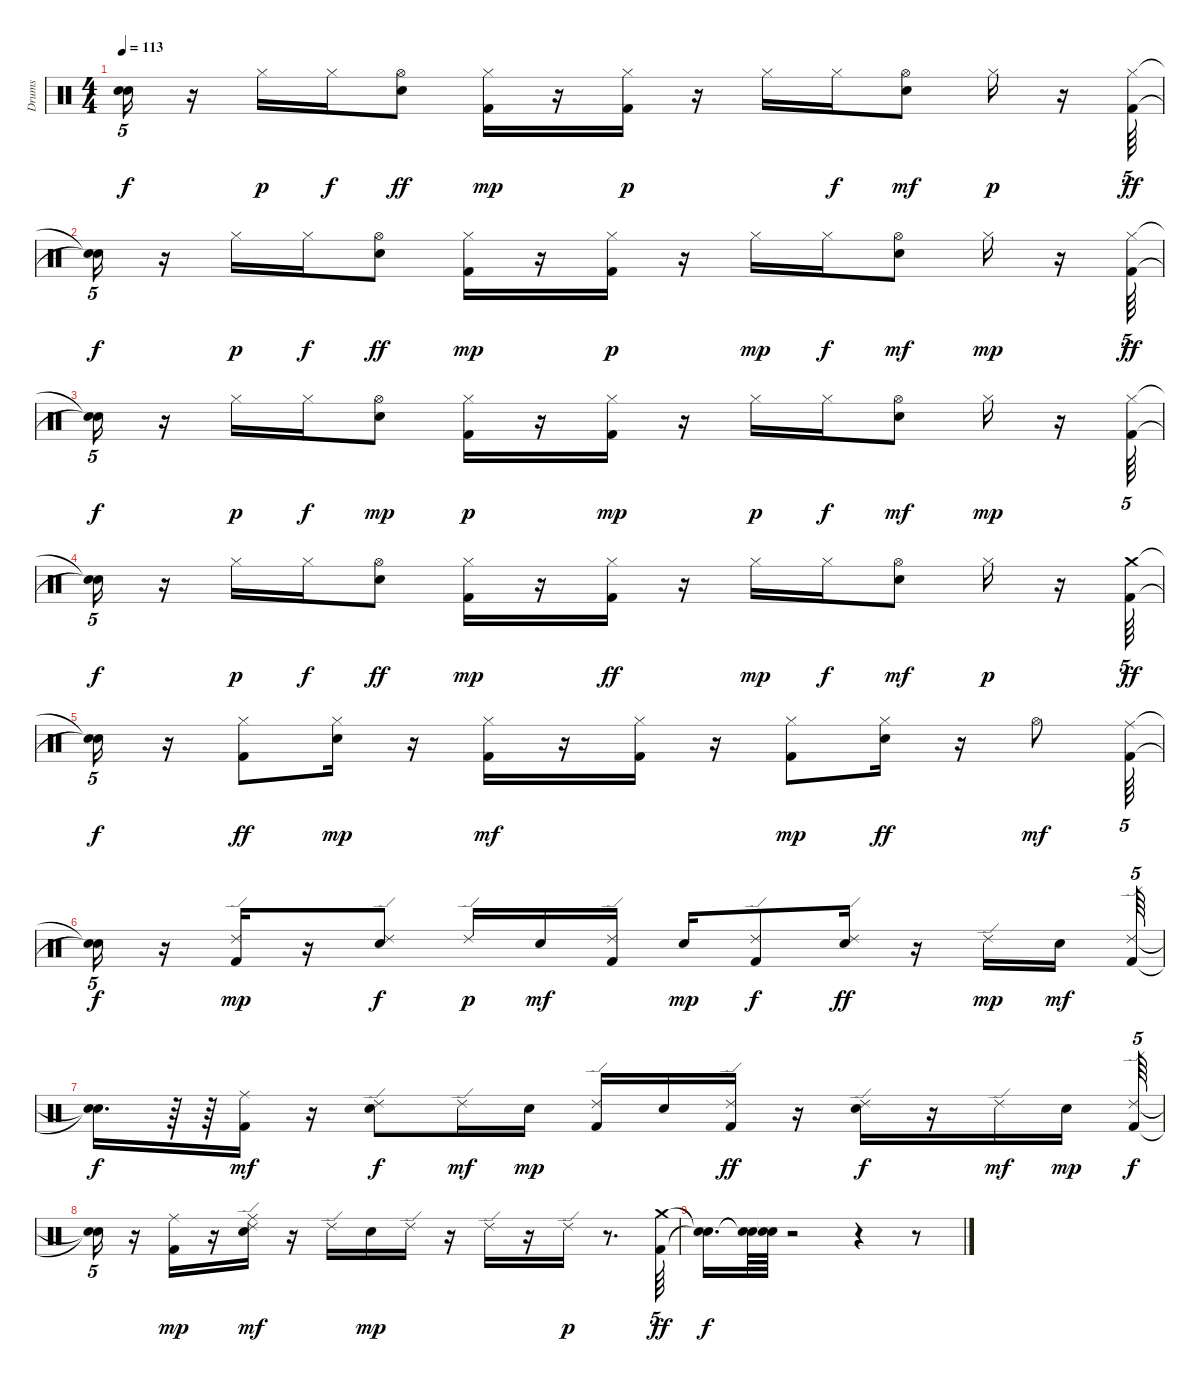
\track ("Drums" "Drums") {instrument percussion}
\staff {score}
\articulation defaults
\ts (4 4)
\tempo 113
\clef neutral
\ks c
("Snare (hit)"{t} "Snare (hit)"{t}).16{tu (5 4) dy f} r.16 "Hi-Hat (closed)".16{dy p} "Hi-Hat (closed)".16{dy f} ("Hi-Hat (open)" "Electric Snare (hit)").8{dy ff} ("Kick (hit) 2" "Hi-Hat (closed)").16{dy mp} r.16 ("Hi-Hat (closed)" "Kick (hit) 2").16{dy p} r.16 "Hi-Hat (closed)".16 "Hi-Hat (closed)".16{dy f} ("Electric Snare (hit)" "Hi-Hat (open)").8{dy mf} "Hi-Hat (closed)".16{dy p} r.16 ("Hi-Hat (closed)" "Kick (hit) 2").64{tu (5 4) dy ff} |
("Snare (hit)"{t} "Snare (hit)"{t}).16{tu (5 4) dy f} r.16 "Hi-Hat (closed)".16{dy p} "Hi-Hat (closed)".16{dy f} ("Hi-Hat (open)" "Electric Snare (hit)").8{dy ff} ("Kick (hit) 2" "Hi-Hat (closed)").16{dy mp} r.16 ("Kick (hit) 2" "Hi-Hat (closed)").16{dy p} r.16 "Hi-Hat (closed)".16{dy mp} "Hi-Hat (closed)".16{dy f} ("Electric Snare (hit)" "Hi-Hat (open)").8{dy mf} "Hi-Hat (closed)".16{dy mp} r.16 ("Hi-Hat (closed)" "Kick (hit) 2").64{tu (5 4) dy ff} |
("Snare (hit)"{t} "Snare (hit)"{t}).16{tu (5 4) dy f} r.16 "Hi-Hat (closed)".16{dy p} "Hi-Hat (closed)".16{dy f} ("Electric Snare (hit)" "Hi-Hat (open)").8{dy mp} ("Hi-Hat (closed)" "Kick (hit) 2").16{dy p} r.16 ("Kick (hit) 2" "Hi-Hat (closed)").16{dy mp} r.16 "Hi-Hat (closed)".16{dy p} "Hi-Hat (closed)".16{dy f} ("Electric Snare (hit)" "Hi-Hat (open)").8{dy mf} "Hi-Hat (closed)".16{dy mp} r.16 ("Kick (hit) 2" "Hi-Hat (closed)").64{tu (5 4)} |
("Snare (hit)"{t} "Snare (hit)"{t}).16{tu (5 4) dy f} r.16 "Hi-Hat (closed)".16{dy p} "Hi-Hat (closed)".16{dy f} ("Hi-Hat (open)" "Electric Snare (hit)").8{dy ff} ("Kick (hit) 2" "Hi-Hat (closed)").16{dy mp} r.16 ("Hi-Hat (closed)" "Kick (hit) 2").16{dy ff} r.16 "Hi-Hat (closed)".16{dy mp} "Hi-Hat (closed)".16{dy f} ("Electric Snare (hit)" "Hi-Hat (open)").8{dy mf} "Hi-Hat (closed)".16{dy p} r.16 ("Crash medium (hit)" "Kick (hit) 2").64{tu (5 4) dy ff} |
("Snare (hit)"{t} "Snare (hit)"{t}).16{tu (5 4) dy f} r.16 ("Hi-Hat (closed)" "Kick (hit) 2").8{dy ff} ("Electric Snare (hit)" "Hi-Hat (closed)").16{dy mp} r.16 ("Hi-Hat (closed)" "Kick (hit) 2").16{dy mf} r.16 ("Hi-Hat (closed)" "Kick (hit) 2").16 r.16 ("Hi-Hat (closed)" "Kick (hit) 2").8{dy mp} ("Hi-Hat (closed)" "Electric Snare (hit)").16{dy ff} r.16 "Hi-Hat (open)".8{dy mf} ("Ride (middle)" "Kick (hit) 2").64{tu (5 4)} |
("Snare (hit)"{t} "Snare (hit)"{t}).16{tu (5 4) dy f} r.16 ("Ride (edge) 2" "Kick (hit) 2").16{dy mp} r.16 ("Snare (hit) 2" "Ride (edge) 2").8{dy f} "Ride (edge) 2".16{dy p} "Snare (hit) 2".16{dy mf} ("Kick (hit) 2" "Ride (edge) 2").16 "Snare (hit) 2".16{dy mp} ("Ride (edge) 2" "Kick (hit) 2").8{dy f} ("Snare (hit) 2" "Ride (edge) 2").16{dy ff} r.16 "Ride (edge) 2".16{dy mp} "Snare (hit) 2".16{dy mf beam splitsecondary} ("Ride (edge) 2" "Kick (hit) 2").64{tu (5 4)} |
("Snare (hit)"{t} "Snare (hit)"{t}).16{d dy f} r.64 r.64 ("Ride (middle)" "Kick (hit) 2").16{dy mf} r.16 ("Ride (edge) 2" "Snare (hit) 2").8{dy f} "Ride (edge) 2".16{dy mf} "Snare (hit) 2".16{dy mp} ("Kick (hit) 2" "Ride (edge) 2").16 "Snare (hit) 2".16 ("Kick (hit) 2" "Ride (edge) 2").16{dy ff} r.16 ("Ride (edge) 2" "Snare (hit) 2").16{dy f} r.16 "Ride (edge) 2".16{dy mf} "Snare (hit) 2".16{dy mp} ("Ride (edge) 2" "Kick (hit) 2").64{tu (5 4) dy f} |
("Snare (hit)"{t} "Snare (hit)"{t}).16{tu (5 4)} r.16 ("Ride (middle)" "Kick (hit) 2").16{dy mp} r.16 ("Ride (middle)" "Snare (hit) 2" "Ride (edge) 2").16{dy mf} r.16 "Ride (edge) 2".16 "Snare (hit) 2".16{dy mp} "Ride (edge) 2".16 r.16 "Ride (edge) 2".16 r.16 "Ride (edge) 2".16{dy p} r.8{d} ("Crash medium (hit)" "Kick (hit) 2").64{tu (5 4) dy ff} |
("Snare (hit)"{t} "Snare (hit)"{t}).16{d dy f} ("Snare (hit)"{t} "Snare (hit)"{t}).64 ("Snare (hit)"{t} "Snare (hit)"{t}).64 r.2 r.4 r.8
